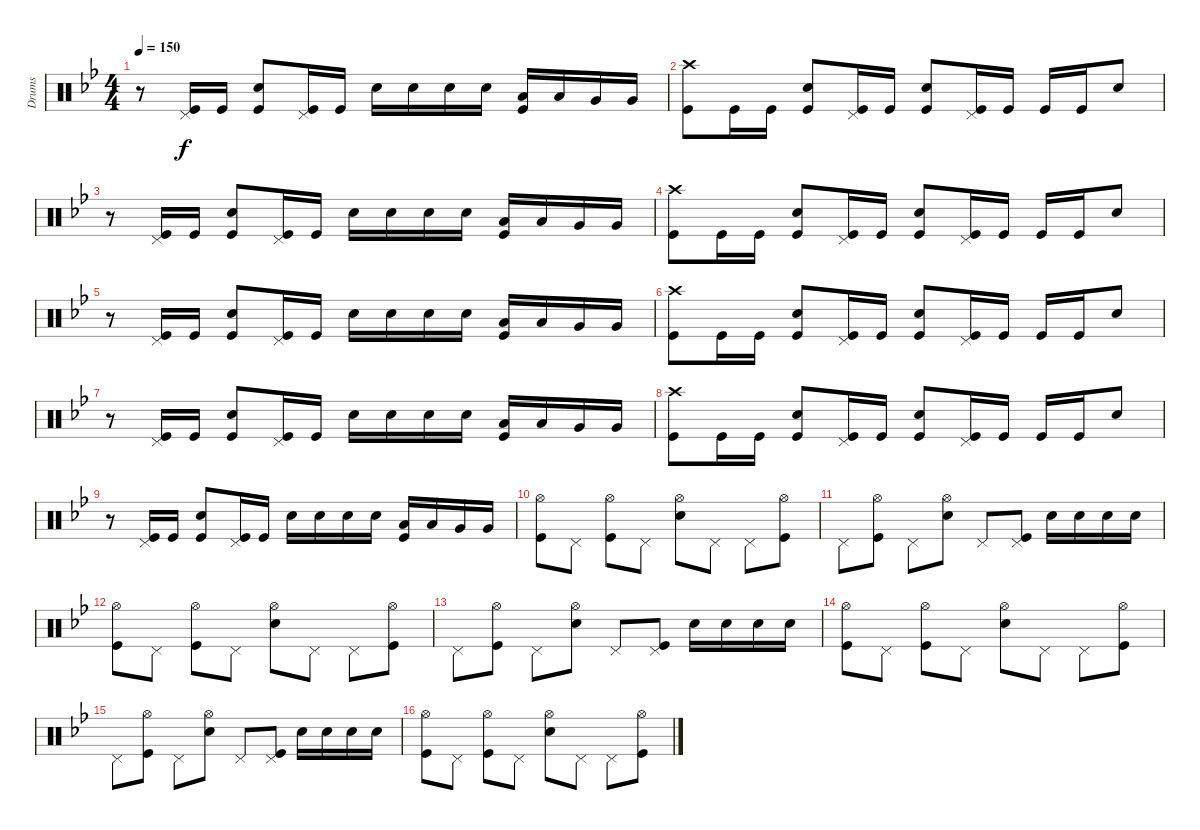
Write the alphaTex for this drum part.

\track ("Drums" "Drums") {instrument percussion}
\staff {score}
\articulation defaults
\ts (4 4)
\tempo 150
\clef neutral
\ks bb
r.8{dy f} ("Pedal Hi-Hat (hit)" "Kick (hit)").16 "Kick (hit)".16 ("Electric Snare (hit)" "Kick (hit)").8 ("Pedal Hi-Hat (hit)" "Kick (hit)").16 "Kick (hit)".16 "Electric Snare (hit)".16 "Electric Snare (hit)".16 "Electric Snare (hit)".16 "Electric Snare (hit)".16 ("Low Tom (hit)" "Kick (hit)").16 "Low Tom (hit)".16 "Very Low Tom (hit)".16 "Very Low Tom (hit)".16 |
("Crash high (hit)" "Kick (hit)").8 "Kick (hit)".16 "Kick (hit)".16 ("Electric Snare (hit)" "Kick (hit)").8 ("Pedal Hi-Hat (hit)" "Kick (hit)").16 "Kick (hit)".16 ("Electric Snare (hit)" "Kick (hit)").8 ("Pedal Hi-Hat (hit)" "Kick (hit)").16 "Kick (hit)".16 "Kick (hit)".16 "Kick (hit)".16 "Electric Snare (hit)".8 |
r.8 ("Pedal Hi-Hat (hit)" "Kick (hit)").16 "Kick (hit)".16 ("Electric Snare (hit)" "Kick (hit)").8 ("Pedal Hi-Hat (hit)" "Kick (hit)").16 "Kick (hit)".16 "Electric Snare (hit)".16 "Electric Snare (hit)".16 "Electric Snare (hit)".16 "Electric Snare (hit)".16 ("Low Tom (hit)" "Kick (hit)").16 "Low Tom (hit)".16 "Very Low Tom (hit)".16 "Very Low Tom (hit)".16 |
("Crash high (hit)" "Kick (hit)").8 "Kick (hit)".16 "Kick (hit)".16 ("Electric Snare (hit)" "Kick (hit)").8 ("Pedal Hi-Hat (hit)" "Kick (hit)").16 "Kick (hit)".16 ("Electric Snare (hit)" "Kick (hit)").8 ("Pedal Hi-Hat (hit)" "Kick (hit)").16 "Kick (hit)".16 "Kick (hit)".16 "Kick (hit)".16 "Electric Snare (hit)".8 |
r.8 ("Pedal Hi-Hat (hit)" "Kick (hit)").16 "Kick (hit)".16 ("Electric Snare (hit)" "Kick (hit)").8 ("Pedal Hi-Hat (hit)" "Kick (hit)").16 "Kick (hit)".16 "Electric Snare (hit)".16 "Electric Snare (hit)".16 "Electric Snare (hit)".16 "Electric Snare (hit)".16 ("Low Tom (hit)" "Kick (hit)").16 "Low Tom (hit)".16 "Very Low Tom (hit)".16 "Very Low Tom (hit)".16 |
("Crash high (hit)" "Kick (hit)").8 "Kick (hit)".16 "Kick (hit)".16 ("Electric Snare (hit)" "Kick (hit)").8 ("Pedal Hi-Hat (hit)" "Kick (hit)").16 "Kick (hit)".16 ("Electric Snare (hit)" "Kick (hit)").8 ("Pedal Hi-Hat (hit)" "Kick (hit)").16 "Kick (hit)".16 "Kick (hit)".16 "Kick (hit)".16 "Electric Snare (hit)".8 |
r.8 ("Pedal Hi-Hat (hit)" "Kick (hit)").16 "Kick (hit)".16 ("Electric Snare (hit)" "Kick (hit)").8 ("Pedal Hi-Hat (hit)" "Kick (hit)").16 "Kick (hit)".16 "Electric Snare (hit)".16 "Electric Snare (hit)".16 "Electric Snare (hit)".16 "Electric Snare (hit)".16 ("Low Tom (hit)" "Kick (hit)").16 "Low Tom (hit)".16 "Very Low Tom (hit)".16 "Very Low Tom (hit)".16 |
("Crash high (hit)" "Kick (hit)").8 "Kick (hit)".16 "Kick (hit)".16 ("Electric Snare (hit)" "Kick (hit)").8 ("Pedal Hi-Hat (hit)" "Kick (hit)").16 "Kick (hit)".16 ("Electric Snare (hit)" "Kick (hit)").8 ("Pedal Hi-Hat (hit)" "Kick (hit)").16 "Kick (hit)".16 "Kick (hit)".16 "Kick (hit)".16 "Electric Snare (hit)".8 |
r.8 ("Pedal Hi-Hat (hit)" "Kick (hit)").16 "Kick (hit)".16 ("Electric Snare (hit)" "Kick (hit)").8 ("Pedal Hi-Hat (hit)" "Kick (hit)").16 "Kick (hit)".16 "Electric Snare (hit)".16 "Electric Snare (hit)".16 "Electric Snare (hit)".16 "Electric Snare (hit)".16 ("Low Tom (hit)" "Kick (hit)").16 "Low Tom (hit)".16 "Very Low Tom (hit)".16 "Very Low Tom (hit)".16 |
("Hi-Hat (open)" "Kick (hit)").8 "Pedal Hi-Hat (hit)".8 ("Hi-Hat (open)" "Kick (hit)").8 "Pedal Hi-Hat (hit)".8 ("Hi-Hat (open)" "Electric Snare (hit)").8 "Pedal Hi-Hat (hit)".8 "Pedal Hi-Hat (hit)".8 ("Hi-Hat (open)" "Kick (hit)").8 |
"Pedal Hi-Hat (hit)".8 ("Hi-Hat (open)" "Kick (hit)").8 "Pedal Hi-Hat (hit)".8 ("Hi-Hat (open)" "Electric Snare (hit)").8 "Pedal Hi-Hat (hit)".8 ("Pedal Hi-Hat (hit)" "Kick (hit)").8 "Electric Snare (hit)".16 "Electric Snare (hit)".16 "Electric Snare (hit)".16 "Electric Snare (hit)".16 |
("Hi-Hat (open)" "Kick (hit)").8 "Pedal Hi-Hat (hit)".8 ("Hi-Hat (open)" "Kick (hit)").8 "Pedal Hi-Hat (hit)".8 ("Hi-Hat (open)" "Electric Snare (hit)").8 "Pedal Hi-Hat (hit)".8 "Pedal Hi-Hat (hit)".8 ("Hi-Hat (open)" "Kick (hit)").8 |
"Pedal Hi-Hat (hit)".8 ("Hi-Hat (open)" "Kick (hit)").8 "Pedal Hi-Hat (hit)".8 ("Hi-Hat (open)" "Electric Snare (hit)").8 "Pedal Hi-Hat (hit)".8 ("Pedal Hi-Hat (hit)" "Kick (hit)").8 "Electric Snare (hit)".16 "Electric Snare (hit)".16 "Electric Snare (hit)".16 "Electric Snare (hit)".16 |
("Hi-Hat (open)" "Kick (hit)").8 "Pedal Hi-Hat (hit)".8 ("Hi-Hat (open)" "Kick (hit)").8 "Pedal Hi-Hat (hit)".8 ("Hi-Hat (open)" "Electric Snare (hit)").8 "Pedal Hi-Hat (hit)".8 "Pedal Hi-Hat (hit)".8 ("Hi-Hat (open)" "Kick (hit)").8 |
"Pedal Hi-Hat (hit)".8 ("Hi-Hat (open)" "Kick (hit)").8 "Pedal Hi-Hat (hit)".8 ("Hi-Hat (open)" "Electric Snare (hit)").8 "Pedal Hi-Hat (hit)".8 ("Pedal Hi-Hat (hit)" "Kick (hit)").8 "Electric Snare (hit)".16 "Electric Snare (hit)".16 "Electric Snare (hit)".16 "Electric Snare (hit)".16 |
("Hi-Hat (open)" "Kick (hit)").8 "Pedal Hi-Hat (hit)".8 ("Hi-Hat (open)" "Kick (hit)").8 "Pedal Hi-Hat (hit)".8 ("Hi-Hat (open)" "Electric Snare (hit)").8 "Pedal Hi-Hat (hit)".8 "Pedal Hi-Hat (hit)".8 ("Hi-Hat (open)" "Kick (hit)").8
